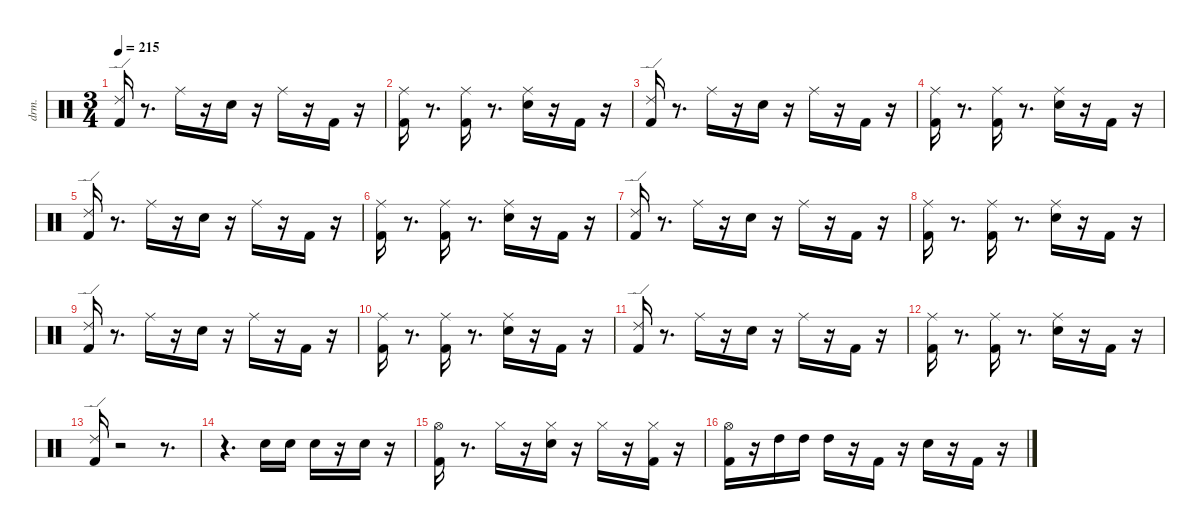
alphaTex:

\defaultSystemsLayout 4
\hideDynamics
\bracketExtendMode nobrackets
\otherSystemsTrackNameOrientation horizontal
\track ("drums(暫定)" "drm.") {instrument percussion}
\staff {score}
\articulation defaults
\ts (3 4)
\tempo 215
\clef neutral
\ks aminor
("Kick (hit) 2" "Ride (edge) 2").16{dy fff beam Up} r.8{d beam Up} "Ride (middle)"{acc #}.16{dy pp beam Down} r.16{beam Down} "Snare (hit) 2".16{dy ff beam Down} r.16{beam Down} "Ride (middle)"{acc #}.16{beam Down} r.16{beam Down} "Kick (hit) 2".16{dy mf beam Up} r.16{beam Up} |
("Kick (hit) 2" "Ride (middle)"{acc #}).16{dy fff beam Down} r.8{d beam Down} ("Kick (hit) 2" "Ride (middle)"{acc #}).16{dy ff beam Down} r.8{d beam Down} ("Snare (hit) 2" "Ride (middle)"{acc #}).16{beam Down} r.16{beam Down} "Kick (hit) 2".16{dy mp beam Up} r.16{beam Up} |
("Kick (hit) 2" "Ride (edge) 2").16{dy fff beam Up} r.8{d beam Up} "Ride (middle)"{acc #}.16{dy pp beam Down} r.16{beam Down} "Snare (hit) 2".16{dy ff beam Down} r.16{beam Down} "Ride (middle)"{acc #}.16{beam Down} r.16{beam Down} "Kick (hit) 2".16{dy mf beam Up} r.16{beam Up} |
("Kick (hit) 2" "Ride (middle)"{acc #}).16{dy fff beam Down} r.8{d beam Down} ("Kick (hit) 2" "Ride (middle)"{acc #}).16{dy ff beam Down} r.8{d beam Down} ("Snare (hit) 2" "Ride (middle)"{acc #}).16{beam Down} r.16{beam Down} "Kick (hit) 2".16{dy mp beam Up} r.16{beam Up} |
("Kick (hit) 2" "Ride (edge) 2").16{dy fff beam Up} r.8{d beam Up} "Ride (middle)"{acc #}.16{dy pp beam Down} r.16{beam Down} "Snare (hit) 2".16{dy ff beam Down} r.16{beam Down} "Ride (middle)"{acc #}.16{beam Down} r.16{beam Down} "Kick (hit) 2".16{dy mf beam Up} r.16{beam Up} |
("Kick (hit) 2" "Ride (middle)"{acc #}).16{dy fff beam Down} r.8{d beam Down} ("Kick (hit) 2" "Ride (middle)"{acc #}).16{dy ff beam Down} r.8{d beam Down} ("Snare (hit) 2" "Ride (middle)"{acc #}).16{beam Down} r.16{beam Down} "Kick (hit) 2".16{dy mp beam Up} r.16{beam Up} |
("Kick (hit) 2" "Ride (edge) 2").16{dy fff beam Up} r.8{d beam Up} "Ride (middle)"{acc #}.16{dy pp beam Down} r.16{beam Down} "Snare (hit) 2".16{dy ff beam Down} r.16{beam Down} "Ride (middle)"{acc #}.16{beam Down} r.16{beam Down} "Kick (hit) 2".16{dy mf beam Up} r.16{beam Up} |
("Kick (hit) 2" "Ride (middle)"{acc #}).16{dy fff beam Down} r.8{d beam Down} ("Kick (hit) 2" "Ride (middle)"{acc #}).16{dy ff beam Down} r.8{d beam Down} ("Snare (hit) 2" "Ride (middle)"{acc #}).16{beam Down} r.16{beam Down} "Kick (hit) 2".16{dy mp beam Up} r.16{beam Up} |
("Kick (hit) 2" "Ride (edge) 2").16{dy fff beam Up} r.8{d beam Up} "Ride (middle)"{acc #}.16{dy pp beam Down} r.16{beam Down} "Snare (hit) 2".16{dy ff beam Down} r.16{beam Down} "Ride (middle)"{acc #}.16{beam Down} r.16{beam Down} "Kick (hit) 2".16{dy mf beam Up} r.16{beam Up} |
("Kick (hit) 2" "Ride (middle)"{acc #}).16{dy fff beam Down} r.8{d beam Down} ("Kick (hit) 2" "Ride (middle)"{acc #}).16{dy ff beam Down} r.8{d beam Down} ("Snare (hit) 2" "Ride (middle)"{acc #}).16{beam Down} r.16{beam Down} "Kick (hit) 2".16{dy mp beam Up} r.16{beam Up} |
("Kick (hit) 2" "Ride (edge) 2").16{dy fff beam Up} r.8{d beam Up} "Ride (middle)"{acc #}.16{dy pp beam Down} r.16{beam Down} "Snare (hit) 2".16{dy ff beam Down} r.16{beam Down} "Ride (middle)"{acc #}.16{beam Down} r.16{beam Down} "Kick (hit) 2".16{dy mf beam Up} r.16{beam Up} |
("Kick (hit) 2" "Ride (middle)"{acc #}).16{dy fff beam Down} r.8{d beam Down} ("Kick (hit) 2" "Ride (middle)"{acc #}).16{dy ff beam Down} r.8{d beam Down} ("Snare (hit) 2" "Ride (middle)"{acc #}).16{beam Down} r.16{beam Down} "Kick (hit) 2".16{dy mp beam Up} r.16{beam Up} |
("Kick (hit) 2" "Ride (edge) 2").16{dy fff beam Up} r.2{beam Up} r.8{d beam Up} |
r.4{d beam Down} "Snare (hit) 2".16{dy mf beam Down} "Snare (hit) 2".16{dy p beam Down} "Snare (hit) 2".16{dy f beam Down} r.16{beam Down} "Snare (hit) 2".16{dy fff beam Down} r.16{beam Down} |
("Kick (hit) 2" "Hi-Hat (open)"{acc #}).16{dy ff beam Down} r.8{d beam Down} "Hi-Hat (closed)"{acc #}.16{beam Down} r.16{beam Down} ("Snare (hit) 2" "Hi-Hat (closed)"{acc #}).16{beam Down} r.16{beam Down} "Hi-Hat (closed)"{acc #}.16{beam Down} r.16{beam Down} ("Kick (hit) 2" "Hi-Hat (closed)"{acc #}).16{dy mf beam Down} r.16{beam Down} |
("Kick (hit) 2" "Hi-Hat (open)"{acc #}).16{dy ff beam Down} r.16{beam Down} "High Tom (hit)".16{dy mf beam Down} "High Tom (hit)".16{dy mp beam Down} "High Tom (hit)".16{dy fff beam Down} r.16{beam Down} "Kick (hit) 2".16{dy ff beam Up} r.16{beam Up} "Snare (hit) 2".16{beam Down} r.16{beam Down} "Kick (hit) 2".16{dy mp beam Up} r.16{beam Up}
